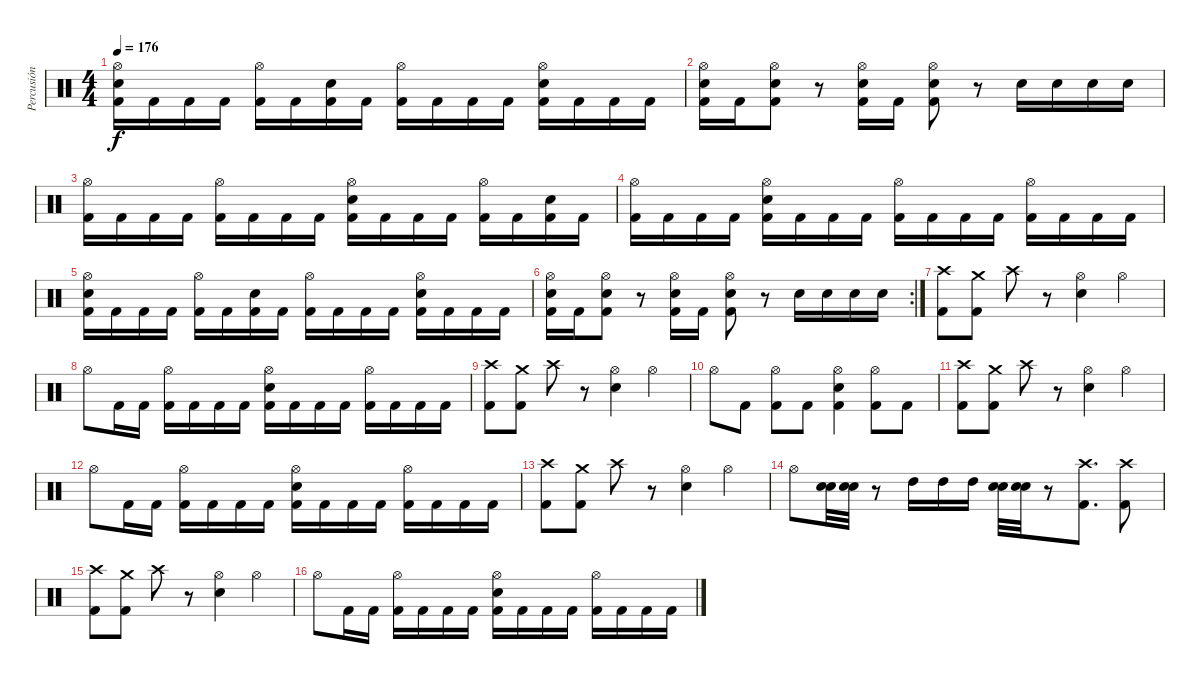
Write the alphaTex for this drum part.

\track ("Percusión" "Percusión") {instrument percussion}
\staff {score}
\articulation defaults
\ts (4 4)
\tempo 176
\clef neutral
\ks c
("Hi-Hat (open)" "Electric Snare (hit)" "Kick (hit) 2").16{dy f} "Kick (hit) 2".16 "Kick (hit) 2".16 "Kick (hit) 2".16 ("Hi-Hat (open)" "Kick (hit) 2").16 "Kick (hit) 2".16 ("Electric Snare (hit)" "Kick (hit) 2").16 "Kick (hit) 2".16 ("Hi-Hat (open)" "Kick (hit) 2").16 "Kick (hit) 2".16 "Kick (hit) 2".16 "Kick (hit) 2".16 ("Hi-Hat (open)" "Electric Snare (hit)" "Kick (hit) 2").16 "Kick (hit) 2".16 "Kick (hit) 2".16 "Kick (hit) 2".16 |
("Hi-Hat (open)" "Electric Snare (hit)" "Kick (hit) 2").16 "Kick (hit) 2".16 ("Hi-Hat (open)" "Electric Snare (hit)" "Kick (hit) 2").8 r.8 ("Hi-Hat (open)" "Electric Snare (hit)" "Kick (hit) 2").16 "Kick (hit) 2".16 ("Hi-Hat (open)" "Electric Snare (hit)" "Kick (hit) 2").8 r.8 "Electric Snare (hit)".16 "Electric Snare (hit)".16 "Electric Snare (hit)".16 "Electric Snare (hit)".16 |
("Hi-Hat (open)" "Kick (hit) 2").16 "Kick (hit) 2".16 "Kick (hit) 2".16 "Kick (hit) 2".16 ("Hi-Hat (open)" "Kick (hit) 2").16 "Kick (hit) 2".16 "Kick (hit) 2".16 "Kick (hit) 2".16 ("Hi-Hat (open)" "Electric Snare (hit)" "Kick (hit) 2").16 "Kick (hit) 2".16 "Kick (hit) 2".16 "Kick (hit) 2".16 ("Hi-Hat (open)" "Kick (hit) 2").16 "Kick (hit) 2".16 ("Electric Snare (hit)" "Kick (hit) 2").16 "Kick (hit) 2".16 |
("Hi-Hat (open)" "Kick (hit) 2").16 "Kick (hit) 2".16 "Kick (hit) 2".16 "Kick (hit) 2".16 ("Hi-Hat (open)" "Electric Snare (hit)" "Kick (hit) 2").16 "Kick (hit) 2".16 "Kick (hit) 2".16 "Kick (hit) 2".16 ("Hi-Hat (open)" "Kick (hit) 2").16 "Kick (hit) 2".16 "Kick (hit) 2".16 "Kick (hit) 2".16 ("Hi-Hat (open)" "Kick (hit) 2").16 "Kick (hit) 2".16 "Kick (hit) 2".16 "Kick (hit) 2".16 |
("Hi-Hat (open)" "Electric Snare (hit)" "Kick (hit) 2").16 "Kick (hit) 2".16 "Kick (hit) 2".16 "Kick (hit) 2".16 ("Hi-Hat (open)" "Kick (hit) 2").16 "Kick (hit) 2".16 ("Electric Snare (hit)" "Kick (hit) 2").16 "Kick (hit) 2".16 ("Hi-Hat (open)" "Kick (hit) 2").16 "Kick (hit) 2".16 "Kick (hit) 2".16 "Kick (hit) 2".16 ("Hi-Hat (open)" "Electric Snare (hit)" "Kick (hit) 2").16 "Kick (hit) 2".16 "Kick (hit) 2".16 "Kick (hit) 2".16 |
\rc 2
("Hi-Hat (open)" "Electric Snare (hit)" "Kick (hit) 2").16 "Kick (hit) 2".16 ("Hi-Hat (open)" "Electric Snare (hit)" "Kick (hit) 2").8 r.8 ("Hi-Hat (open)" "Electric Snare (hit)" "Kick (hit) 2").16 "Kick (hit) 2".16 ("Hi-Hat (open)" "Electric Snare (hit)" "Kick (hit) 2").8 r.8 "Electric Snare (hit)".16 "Electric Snare (hit)".16 "Electric Snare (hit)".16 "Electric Snare (hit)".16 |
("Crash high (hit)" "Kick (hit) 2").8 ("Crash medium (hit)" "Kick (hit) 2").8 "Crash high (hit)".8 r.8 ("Hi-Hat (open)" "Electric Snare (hit)").4 "Hi-Hat (open)".4 |
"Hi-Hat (open)".8 "Kick (hit) 2".16 "Kick (hit) 2".16 ("Hi-Hat (open)" "Kick (hit) 2").16 "Kick (hit) 2".16 "Kick (hit) 2".16 "Kick (hit) 2".16 ("Hi-Hat (open)" "Electric Snare (hit)" "Kick (hit) 2").16 "Kick (hit) 2".16 "Kick (hit) 2".16 "Kick (hit) 2".16 ("Hi-Hat (open)" "Kick (hit) 2").16 "Kick (hit) 2".16 "Kick (hit) 2".16 "Kick (hit) 2".16 |
("Crash high (hit)" "Kick (hit) 2").8 ("Crash medium (hit)" "Kick (hit) 2").8 "Crash high (hit)".8 r.8 ("Hi-Hat (open)" "Electric Snare (hit)").4 "Hi-Hat (open)".4 |
"Hi-Hat (open)".8 "Kick (hit) 2".8 ("Hi-Hat (open)" "Kick (hit) 2").8 "Kick (hit) 2".8 ("Hi-Hat (open)" "Electric Snare (hit)" "Kick (hit) 2").4 ("Hi-Hat (open)" "Kick (hit) 2").8 "Kick (hit) 2".8 |
("Crash high (hit)" "Kick (hit) 2").8 ("Crash medium (hit)" "Kick (hit) 2").8 "Crash high (hit)".8 r.8 ("Hi-Hat (open)" "Electric Snare (hit)").4 "Hi-Hat (open)".4 |
"Hi-Hat (open)".8 "Kick (hit) 2".16 "Kick (hit) 2".16 ("Hi-Hat (open)" "Kick (hit) 2").16 "Kick (hit) 2".16 "Kick (hit) 2".16 "Kick (hit) 2".16 ("Hi-Hat (open)" "Electric Snare (hit)" "Kick (hit) 2").16 "Kick (hit) 2".16 "Kick (hit) 2".16 "Kick (hit) 2".16 ("Hi-Hat (open)" "Kick (hit) 2").16 "Kick (hit) 2".16 "Kick (hit) 2".16 "Kick (hit) 2".16 |
("Crash high (hit)" "Kick (hit) 2").8 ("Crash medium (hit)" "Kick (hit) 2").8 "Crash high (hit)".8 r.8 ("Hi-Hat (open)" "Electric Snare (hit)").4 "Hi-Hat (open)".4 |
"Hi-Hat (open)".8 ("Electric Snare (hit)" "Electric Snare (hit)").32 ("Electric Snare (hit)" "Electric Snare (hit)").32 r.8 "High Tom (hit)".16 "High Tom (hit)".16 "High Tom (hit)".16 ("Electric Snare (hit)" "Electric Snare (hit)").32 ("Electric Snare (hit)" "Electric Snare (hit)").32 r.8 ("Crash high (hit)" "Kick (hit) 2").8{d} ("Crash high (hit)" "Kick (hit) 2").8 |
("Crash high (hit)" "Kick (hit) 2").8 ("Crash medium (hit)" "Kick (hit) 2").8 "Crash high (hit)".8 r.8 ("Hi-Hat (open)" "Electric Snare (hit)").4 "Hi-Hat (open)".4 |
"Hi-Hat (open)".8 "Kick (hit) 2".16 "Kick (hit) 2".16 ("Hi-Hat (open)" "Kick (hit) 2").16 "Kick (hit) 2".16 "Kick (hit) 2".16 "Kick (hit) 2".16 ("Hi-Hat (open)" "Electric Snare (hit)" "Kick (hit) 2").16 "Kick (hit) 2".16 "Kick (hit) 2".16 "Kick (hit) 2".16 ("Hi-Hat (open)" "Kick (hit) 2").16 "Kick (hit) 2".16 "Kick (hit) 2".16 "Kick (hit) 2".16
